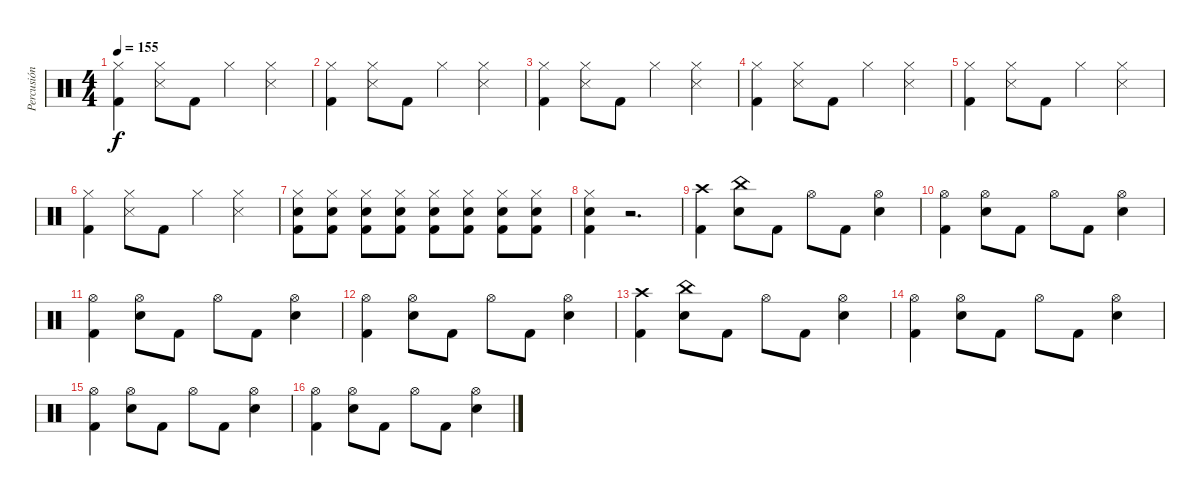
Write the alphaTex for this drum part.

\track ("Percusión" "Percusión") {instrument percussion}
\staff {score}
\articulation defaults
\ts (4 4)
\tempo 155
\clef neutral
\ks c
("Hi-Hat (closed)" "Kick (hit) 2").4{dy f} ("Hi-Hat (closed)" "Snare (side stick) 3").8 "Kick (hit) 2".8 "Hi-Hat (closed)".4 ("Hi-Hat (closed)" "Snare (side stick) 3").4 |
("Hi-Hat (closed)" "Kick (hit) 2").4 ("Hi-Hat (closed)" "Snare (side stick) 3").8 "Kick (hit) 2".8 "Hi-Hat (closed)".4 ("Hi-Hat (closed)" "Snare (side stick) 3").4 |
("Hi-Hat (closed)" "Kick (hit) 2").4 ("Hi-Hat (closed)" "Snare (side stick) 3").8 "Kick (hit) 2".8 "Hi-Hat (closed)".4 ("Hi-Hat (closed)" "Snare (side stick) 3").4 |
("Hi-Hat (closed)" "Kick (hit) 2").4 ("Hi-Hat (closed)" "Snare (side stick) 3").8 "Kick (hit) 2".8 "Hi-Hat (closed)".4 ("Hi-Hat (closed)" "Snare (side stick) 3").4 |
("Hi-Hat (closed)" "Kick (hit) 2").4 ("Hi-Hat (closed)" "Snare (side stick) 3").8 "Kick (hit) 2".8 "Hi-Hat (closed)".4 ("Hi-Hat (closed)" "Snare (side stick) 3").4 |
("Hi-Hat (closed)" "Kick (hit) 2").4 ("Hi-Hat (closed)" "Snare (side stick) 3").8 "Kick (hit) 2".8 "Hi-Hat (closed)".4 ("Hi-Hat (closed)" "Snare (side stick) 3").4 |
("Hi-Hat (closed)" "Electric Snare (hit)" "Kick (hit) 2").8{volume 0} ("Hi-Hat (closed)" "Electric Snare (hit)" "Kick (hit) 2").8 ("Hi-Hat (closed)" "Electric Snare (hit)" "Kick (hit) 2").8{volume 5} ("Hi-Hat (closed)" "Electric Snare (hit)" "Kick (hit) 2").8 ("Hi-Hat (closed)" "Electric Snare (hit)" "Kick (hit) 2").8{volume 10} ("Hi-Hat (closed)" "Electric Snare (hit)" "Kick (hit) 2").8 ("Hi-Hat (closed)" "Electric Snare (hit)" "Kick (hit) 2").8 ("Hi-Hat (closed)" "Electric Snare (hit)" "Kick (hit) 2").8{volume 16} |
("Hi-Hat (closed)" "Electric Snare (hit)" "Kick (hit) 2").4 r.2{d} |
("Crash high (hit)" "Kick (hit) 2").4 ("China (hit)" "Electric Snare (hit)").8 "Kick (hit) 2".8 "Hi-Hat (open)".8 "Kick (hit) 2".8 ("Hi-Hat (open)" "Electric Snare (hit)").4 |
("Hi-Hat (open)" "Kick (hit) 2").4 ("Hi-Hat (open)" "Electric Snare (hit)").8 "Kick (hit) 2".8 "Hi-Hat (open)".8 "Kick (hit) 2".8 ("Hi-Hat (open)" "Electric Snare (hit)").4 |
("Hi-Hat (open)" "Kick (hit) 2").4 ("Hi-Hat (open)" "Electric Snare (hit)").8 "Kick (hit) 2".8 "Hi-Hat (open)".8 "Kick (hit) 2".8 ("Hi-Hat (open)" "Electric Snare (hit)").4 |
("Hi-Hat (open)" "Kick (hit) 2").4 ("Hi-Hat (open)" "Electric Snare (hit)").8 "Kick (hit) 2".8 "Hi-Hat (open)".8 "Kick (hit) 2".8 ("Hi-Hat (open)" "Electric Snare (hit)").4 |
("Crash high (hit)" "Kick (hit) 2").4 ("China (hit)" "Electric Snare (hit)").8 "Kick (hit) 2".8 "Hi-Hat (open)".8 "Kick (hit) 2".8 ("Hi-Hat (open)" "Electric Snare (hit)").4 |
("Hi-Hat (open)" "Kick (hit) 2").4 ("Hi-Hat (open)" "Electric Snare (hit)").8 "Kick (hit) 2".8 "Hi-Hat (open)".8 "Kick (hit) 2".8 ("Hi-Hat (open)" "Electric Snare (hit)").4 |
("Hi-Hat (open)" "Kick (hit) 2").4 ("Hi-Hat (open)" "Electric Snare (hit)").8 "Kick (hit) 2".8 "Hi-Hat (open)".8 "Kick (hit) 2".8 ("Hi-Hat (open)" "Electric Snare (hit)").4 |
("Hi-Hat (open)" "Kick (hit) 2").4 ("Hi-Hat (open)" "Electric Snare (hit)").8 "Kick (hit) 2".8 "Hi-Hat (open)".8 "Kick (hit) 2".8 ("Hi-Hat (open)" "Electric Snare (hit)").4
